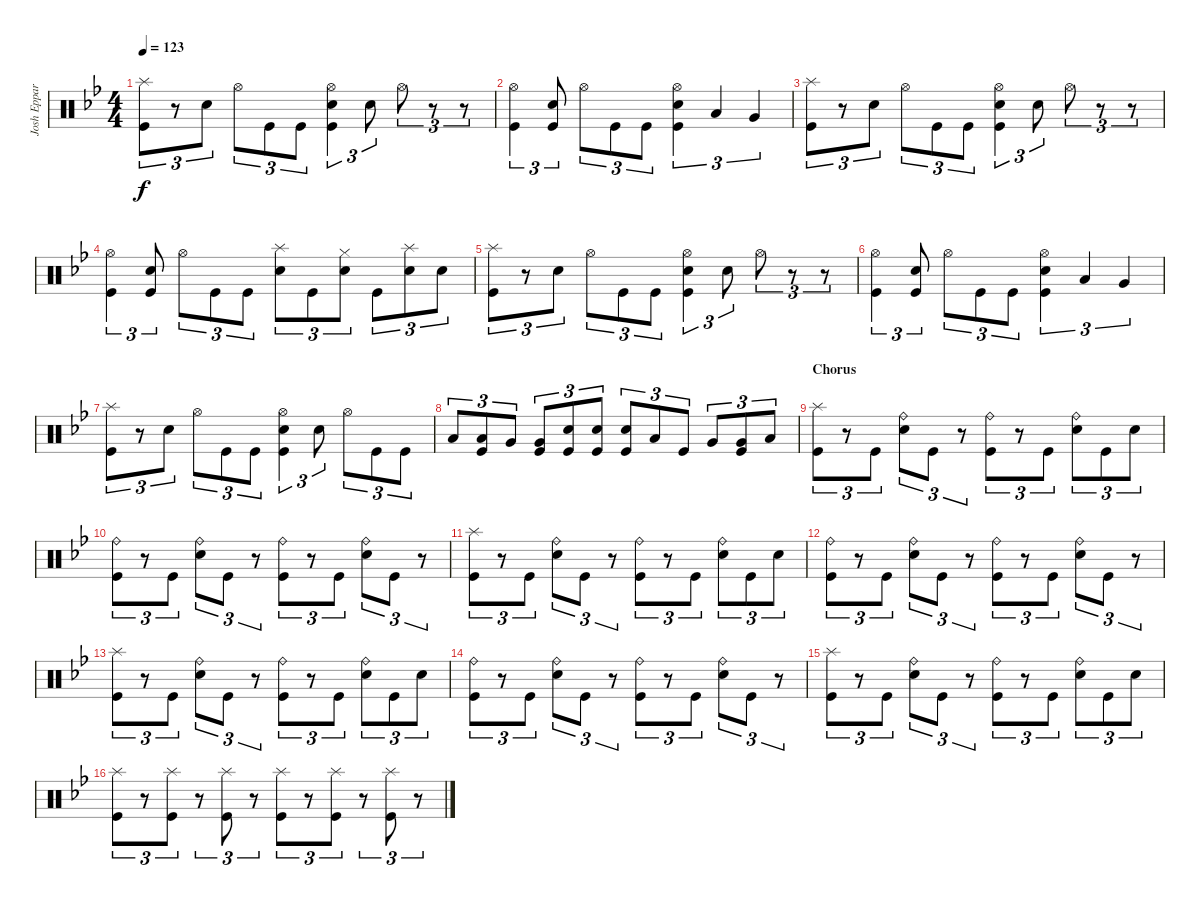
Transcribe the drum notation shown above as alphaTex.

\track ("Josh Eppard" "Josh Eppar") {instrument percussion}
\staff {score}
\articulation defaults
\ts (4 4)
\tempo 123
\clef neutral
\ks gminor
("Kick (hit)" "Splash (hit)").8{tu (3 2) dy f} r.8{tu (3 2)} "Snare (hit) 2".8{tu (3 2)} "Hi-Hat (open)".8{tu (3 2)} "Kick (hit)".8{tu (3 2)} "Kick (hit)".8{tu (3 2)} ("Kick (hit)" "Snare (hit) 2" "Hi-Hat (open)").4{tu (3 2)} "Snare (hit) 2".8{tu (3 2)} "Hi-Hat (open)".8{tu (3 2)} r.8{tu (3 2)} r.8{tu (3 2)} |
("Kick (hit)" "Hi-Hat (open)").4{tu (3 2)} ("Kick (hit)" "Snare (hit) 2").8{tu (3 2)} "Hi-Hat (open)".8{tu (3 2)} "Kick (hit)".8{tu (3 2)} "Kick (hit)".8{tu (3 2)} ("Hi-Hat (open)" "Snare (hit) 2" "Kick (hit)").4{tu (3 2)} "Low Tom (hit)".4{tu (3 2)} "Very Low Tom (hit)".4{tu (3 2)} |
("Kick (hit)" "Splash (hit)").8{tu (3 2)} r.8{tu (3 2)} "Snare (hit) 2".8{tu (3 2)} "Hi-Hat (open)".8{tu (3 2)} "Kick (hit)".8{tu (3 2)} "Kick (hit)".8{tu (3 2)} ("Kick (hit)" "Snare (hit) 2" "Hi-Hat (open)").4{tu (3 2)} "Snare (hit) 2".8{tu (3 2)} "Hi-Hat (open)".8{tu (3 2)} r.8{tu (3 2)} r.8{tu (3 2)} |
("Kick (hit)" "Hi-Hat (open)").4{tu (3 2)} ("Kick (hit)" "Snare (hit) 2").8{tu (3 2)} "Hi-Hat (open)".8{tu (3 2)} "Kick (hit)".8{tu (3 2)} "Kick (hit)".8{tu (3 2)} ("Snare (hit) 2" "Splash (hit)").8{tu (3 2)} "Kick (hit)".8{tu (3 2)} ("Snare (hit) 2" "Hi-Hat (closed)").8{tu (3 2)} "Kick (hit)".8{tu (3 2)} ("Snare (hit) 2" "Splash (hit)").8{tu (3 2)} "Snare (hit) 2".8{tu (3 2)} |
("Kick (hit)" "Splash (hit)").8{tu (3 2)} r.8{tu (3 2)} "Snare (hit) 2".8{tu (3 2)} "Hi-Hat (open)".8{tu (3 2)} "Kick (hit)".8{tu (3 2)} "Kick (hit)".8{tu (3 2)} ("Kick (hit)" "Snare (hit) 2" "Hi-Hat (open)").4{tu (3 2)} "Snare (hit) 2".8{tu (3 2)} "Hi-Hat (open)".8{tu (3 2)} r.8{tu (3 2)} r.8{tu (3 2)} |
("Kick (hit)" "Hi-Hat (open)").4{tu (3 2)} ("Kick (hit)" "Snare (hit) 2").8{tu (3 2)} "Hi-Hat (open)".8{tu (3 2)} "Kick (hit)".8{tu (3 2)} "Kick (hit)".8{tu (3 2)} ("Hi-Hat (open)" "Snare (hit) 2" "Kick (hit)").4{tu (3 2)} "Low Tom (hit)".4{tu (3 2)} "Very Low Tom (hit)".4{tu (3 2)} |
("Kick (hit)" "Splash (hit)").8{tu (3 2)} r.8{tu (3 2)} "Snare (hit) 2".8{tu (3 2)} "Hi-Hat (open)".8{tu (3 2)} "Kick (hit)".8{tu (3 2)} "Kick (hit)".8{tu (3 2)} ("Kick (hit)" "Snare (hit) 2" "Hi-Hat (open)").4{tu (3 2)} "Snare (hit) 2".8{tu (3 2)} "Hi-Hat (open)".8{tu (3 2)} "Kick (hit)".8{tu (3 2)} "Kick (hit)".8{tu (3 2)} |
"Low Tom (hit)".8{tu (3 2)} ("Kick (hit)" "Low Tom (hit)").8{tu (3 2)} "Very Low Tom (hit)".8{tu (3 2)} ("Kick (hit)" "Very Low Tom (hit)").8{tu (3 2)} ("Kick (hit)" "Snare (hit) 2").8{tu (3 2)} ("Snare (hit) 2" "Kick (hit)").8{tu (3 2)} ("Kick (hit)" "Snare (hit) 2").8{tu (3 2)} "Low Tom (hit)".8{tu (3 2)} "Kick (hit)".8{tu (3 2)} "Very Low Tom (hit)".8{tu (3 2)} ("Kick (hit)" "Very Low Tom (hit)").8{tu (3 2)} "Low Floor Tom (hit)".8{tu (3 2)} |
\section ("" "Chorus")
("Splash (hit)" "Kick (hit)").8{tu (3 2)} r.8{tu (3 2)} "Kick (hit)".8{tu (3 2)} ("Snare (hit) 2" "Ride (bell)").8{tu (3 2)} "Kick (hit)".8{tu (3 2)} r.8{tu (3 2)} ("Kick (hit)" "Ride (bell)").8{tu (3 2)} r.8{tu (3 2)} "Kick (hit)".8{tu (3 2)} ("Ride (bell)" "Snare (hit) 2").8{tu (3 2)} "Kick (hit)".8{tu (3 2)} "Snare (hit) 2".8{tu (3 2)} |
("Ride (bell)" "Kick (hit)").8{tu (3 2)} r.8{tu (3 2)} "Kick (hit)".8{tu (3 2)} ("Snare (hit) 2" "Ride (bell)").8{tu (3 2)} "Kick (hit)".8{tu (3 2)} r.8{tu (3 2)} ("Kick (hit)" "Ride (bell)").8{tu (3 2)} r.8{tu (3 2)} "Kick (hit)".8{tu (3 2)} ("Snare (hit) 2" "Ride (bell)").8{tu (3 2)} "Kick (hit)".8{tu (3 2)} r.8{tu (3 2)} |
("Splash (hit)" "Kick (hit)").8{tu (3 2)} r.8{tu (3 2)} "Kick (hit)".8{tu (3 2)} ("Snare (hit) 2" "Ride (bell)").8{tu (3 2)} "Kick (hit)".8{tu (3 2)} r.8{tu (3 2)} ("Kick (hit)" "Ride (bell)").8{tu (3 2)} r.8{tu (3 2)} "Kick (hit)".8{tu (3 2)} ("Ride (bell)" "Snare (hit) 2").8{tu (3 2)} "Kick (hit)".8{tu (3 2)} "Snare (hit) 2".8{tu (3 2)} |
("Ride (bell)" "Kick (hit)").8{tu (3 2)} r.8{tu (3 2)} "Kick (hit)".8{tu (3 2)} ("Snare (hit) 2" "Ride (bell)").8{tu (3 2)} "Kick (hit)".8{tu (3 2)} r.8{tu (3 2)} ("Kick (hit)" "Ride (bell)").8{tu (3 2)} r.8{tu (3 2)} "Kick (hit)".8{tu (3 2)} ("Snare (hit) 2" "Ride (bell)").8{tu (3 2)} "Kick (hit)".8{tu (3 2)} r.8{tu (3 2)} |
("Splash (hit)" "Kick (hit)").8{tu (3 2)} r.8{tu (3 2)} "Kick (hit)".8{tu (3 2)} ("Snare (hit) 2" "Ride (bell)").8{tu (3 2)} "Kick (hit)".8{tu (3 2)} r.8{tu (3 2)} ("Kick (hit)" "Ride (bell)").8{tu (3 2)} r.8{tu (3 2)} "Kick (hit)".8{tu (3 2)} ("Ride (bell)" "Snare (hit) 2").8{tu (3 2)} "Kick (hit)".8{tu (3 2)} "Snare (hit) 2".8{tu (3 2)} |
("Ride (bell)" "Kick (hit)").8{tu (3 2)} r.8{tu (3 2)} "Kick (hit)".8{tu (3 2)} ("Snare (hit) 2" "Ride (bell)").8{tu (3 2)} "Kick (hit)".8{tu (3 2)} r.8{tu (3 2)} ("Kick (hit)" "Ride (bell)").8{tu (3 2)} r.8{tu (3 2)} "Kick (hit)".8{tu (3 2)} ("Snare (hit) 2" "Ride (bell)").8{tu (3 2)} "Kick (hit)".8{tu (3 2)} r.8{tu (3 2)} |
("Splash (hit)" "Kick (hit)").8{tu (3 2)} r.8{tu (3 2)} "Kick (hit)".8{tu (3 2)} ("Snare (hit) 2" "Ride (bell)").8{tu (3 2)} "Kick (hit)".8{tu (3 2)} r.8{tu (3 2)} ("Kick (hit)" "Ride (bell)").8{tu (3 2)} r.8{tu (3 2)} "Kick (hit)".8{tu (3 2)} ("Ride (bell)" "Snare (hit) 2").8{tu (3 2)} "Kick (hit)".8{tu (3 2)} "Snare (hit) 2".8{tu (3 2)} |
("Kick (hit)" "Splash (hit)").8{tu (3 2)} r.8{tu (3 2)} ("Kick (hit)" "Splash (hit)").8{tu (3 2)} r.8{tu (3 2)} ("Kick (hit)" "Splash (hit)").8{tu (3 2)} r.8{tu (3 2)} ("Kick (hit)" "Splash (hit)").8{tu (3 2)} r.8{tu (3 2)} ("Kick (hit)" "Splash (hit)").8{tu (3 2)} r.8{tu (3 2)} ("Kick (hit)" "Splash (hit)").8{tu (3 2)} r.8{tu (3 2)}
